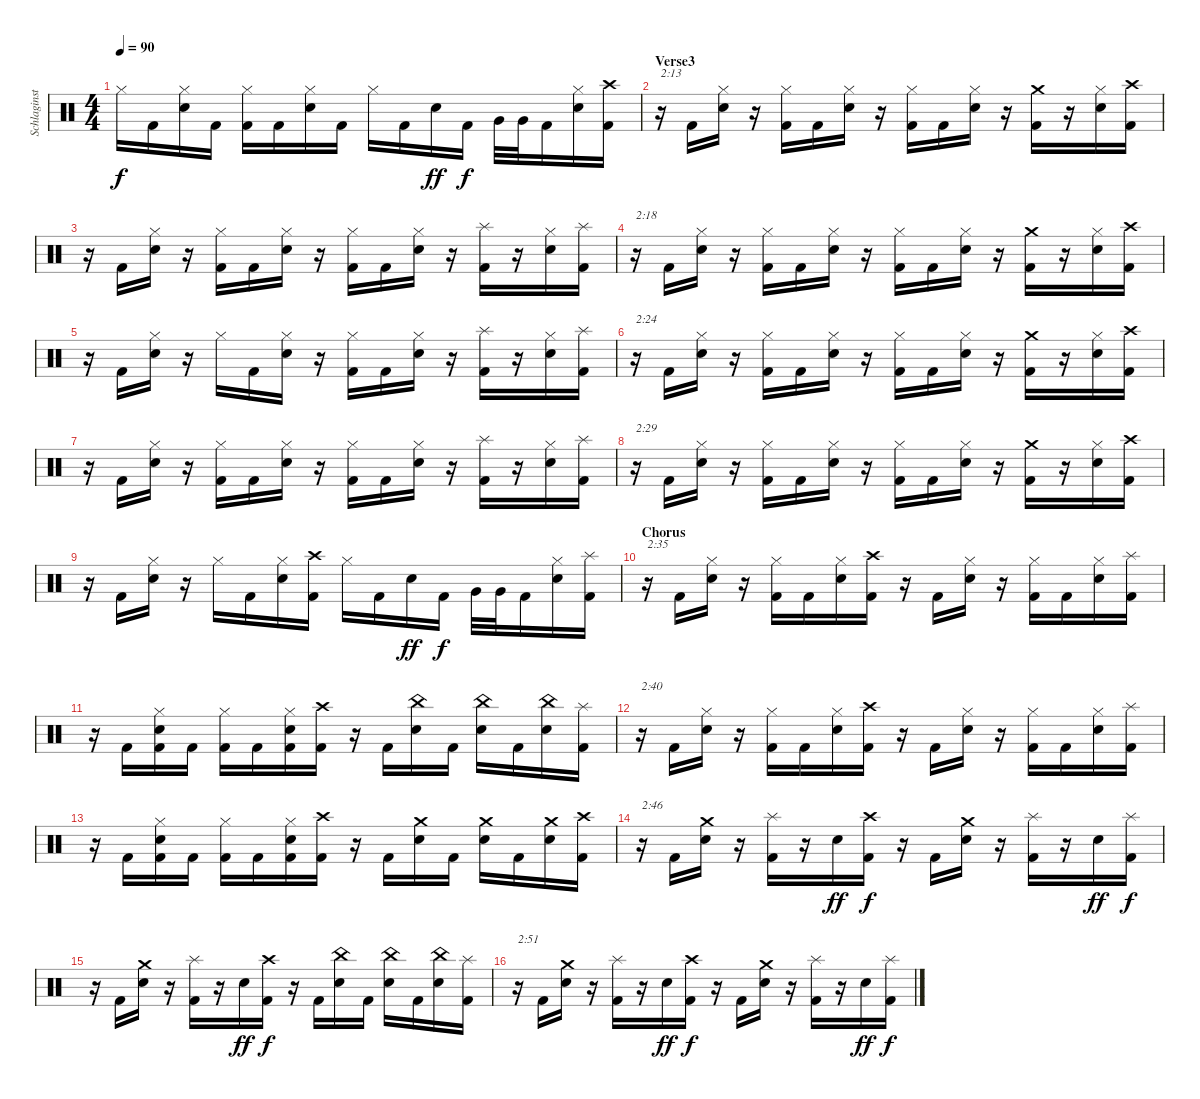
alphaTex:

\track ("Schlaginstrumente - Auswahl" "Schlaginst") {instrument percussion}
\staff {score}
\articulation defaults
\ts (4 4)
\tempo 90
\clef neutral
\ks c "Hi-Hat (closed)".16{dy f} "Kick (hit) 2".16
("Hi-Hat (closed)" "Electric Snare (hit)").16 "Kick (hit) 2".16 ("Hi-Hat (closed)" "Kick (hit) 2").16 "Kick (hit) 2".16 ("Hi-Hat (closed)" "Electric Snare (hit)").16 "Kick (hit) 2".16 "Hi-Hat (closed)".16 "Kick (hit) 2".16 "Electric Snare (hit)".16{dy ff} "Kick (hit) 2".16{dy f} "Very Low Tom (hit)".32 "Very Low Tom (hit)".32 "Kick (hit) 2".16 ("Hi-Hat (closed)" "Electric Snare (hit)").16 ("Crash high (hit)" "Kick (hit) 2").16 |
\section ("" "Verse3")
r.16{txt "2:13"} "Kick (hit) 2".16 ("Hi-Hat (closed)" "Electric Snare (hit)").16 r.16 ("Hi-Hat (closed)" "Kick (hit) 2").16 "Kick (hit) 2".16 ("Hi-Hat (closed)" "Electric Snare (hit)").16 r.16 ("Hi-Hat (closed)" "Kick (hit) 2").16 "Kick (hit) 2".16 ("Hi-Hat (closed)" "Electric Snare (hit)").16 r.16 ("Crash medium (hit)" "Kick (hit) 2").16 r.16 ("Hi-Hat (closed)" "Electric Snare (hit)").16 ("Crash high (hit)" "Kick (hit) 2").16 |
r.16 "Kick (hit) 2".16 ("Hi-Hat (closed)" "Electric Snare (hit)").16 r.16 ("Hi-Hat (closed)" "Kick (hit) 2").16 "Kick (hit) 2".16 ("Hi-Hat (closed)" "Electric Snare (hit)").16 r.16 ("Hi-Hat (closed)" "Kick (hit) 2").16 "Kick (hit) 2".16 ("Hi-Hat (closed)" "Electric Snare (hit)").16 r.16 ("Splash (hit)" "Kick (hit) 2").16 r.16 ("Hi-Hat (closed)" "Electric Snare (hit)").16 ("Splash (hit)" "Kick (hit) 2").16 |
r.16{txt "2:18"} "Kick (hit) 2".16 ("Hi-Hat (closed)" "Electric Snare (hit)").16 r.16 ("Hi-Hat (closed)" "Kick (hit) 2").16 "Kick (hit) 2".16 ("Hi-Hat (closed)" "Electric Snare (hit)").16 r.16 ("Hi-Hat (closed)" "Kick (hit) 2").16 "Kick (hit) 2".16 ("Hi-Hat (closed)" "Electric Snare (hit)").16 r.16 ("Crash medium (hit)" "Kick (hit) 2").16 r.16 ("Hi-Hat (closed)" "Electric Snare (hit)").16 ("Crash high (hit)" "Kick (hit) 2").16 |
r.16 "Kick (hit) 2".16 ("Hi-Hat (closed)" "Electric Snare (hit)").16 r.16 "Hi-Hat (closed)".16 "Kick (hit) 2".16 ("Hi-Hat (closed)" "Electric Snare (hit)").16 r.16 ("Hi-Hat (closed)" "Kick (hit) 2").16 "Kick (hit) 2".16 ("Hi-Hat (closed)" "Electric Snare (hit)").16 r.16 ("Splash (hit)" "Kick (hit) 2").16 r.16 ("Hi-Hat (closed)" "Electric Snare (hit)").16 ("Splash (hit)" "Kick (hit) 2").16 |
r.16{txt "2:24"} "Kick (hit) 2".16 ("Hi-Hat (closed)" "Electric Snare (hit)").16 r.16 ("Hi-Hat (closed)" "Kick (hit) 2").16 "Kick (hit) 2".16 ("Hi-Hat (closed)" "Electric Snare (hit)").16 r.16 ("Hi-Hat (closed)" "Kick (hit) 2").16 "Kick (hit) 2".16 ("Hi-Hat (closed)" "Electric Snare (hit)").16 r.16 ("Crash medium (hit)" "Kick (hit) 2").16 r.16 ("Hi-Hat (closed)" "Electric Snare (hit)").16 ("Crash high (hit)" "Kick (hit) 2").16 |
r.16 "Kick (hit) 2".16 ("Hi-Hat (closed)" "Electric Snare (hit)").16 r.16 ("Hi-Hat (closed)" "Kick (hit) 2").16 "Kick (hit) 2".16 ("Hi-Hat (closed)" "Electric Snare (hit)").16 r.16 ("Hi-Hat (closed)" "Kick (hit) 2").16 "Kick (hit) 2".16 ("Hi-Hat (closed)" "Electric Snare (hit)").16 r.16 ("Splash (hit)" "Kick (hit) 2").16 r.16 ("Hi-Hat (closed)" "Electric Snare (hit)").16 ("Splash (hit)" "Kick (hit) 2").16 |
r.16{txt "2:29"} "Kick (hit) 2".16 ("Hi-Hat (closed)" "Electric Snare (hit)").16 r.16 ("Hi-Hat (closed)" "Kick (hit) 2").16 "Kick (hit) 2".16 ("Hi-Hat (closed)" "Electric Snare (hit)").16 r.16 ("Hi-Hat (closed)" "Kick (hit) 2").16 "Kick (hit) 2".16 ("Hi-Hat (closed)" "Electric Snare (hit)").16 r.16 ("Crash medium (hit)" "Kick (hit) 2").16 r.16 ("Hi-Hat (closed)" "Electric Snare (hit)").16 ("Crash high (hit)" "Kick (hit) 2").16 |
r.16 "Kick (hit) 2".16 ("Hi-Hat (closed)" "Electric Snare (hit)").16 r.16 "Hi-Hat (closed)".16 "Kick (hit) 2".16 ("Hi-Hat (closed)" "Electric Snare (hit)").16 ("Crash high (hit)" "Kick (hit) 2").16 "Hi-Hat (closed)".16 "Kick (hit) 2".16 "Electric Snare (hit)".16{dy ff} "Kick (hit) 2".16{dy f} "Very Low Tom (hit)".32 "Very Low Tom (hit)".32 "Kick (hit) 2".16 ("Hi-Hat (closed)" "Electric Snare (hit)").16 ("Splash (hit)" "Kick (hit) 2").16 |
\section ("" "Chorus")
r.16{txt "2:35"} "Kick (hit) 2".16 ("Hi-Hat (closed)" "Electric Snare (hit)").16 r.16 ("Hi-Hat (closed)" "Kick (hit) 2").16 "Kick (hit) 2".16 ("Hi-Hat (closed)" "Electric Snare (hit)").16 ("Crash high (hit)" "Kick (hit) 2").16 r.16 "Kick (hit) 2".16 ("Hi-Hat (closed)" "Electric Snare (hit)").16 r.16 ("Hi-Hat (closed)" "Kick (hit) 2").16 "Kick (hit) 2".16 ("Hi-Hat (closed)" "Electric Snare (hit)").16 ("Splash (hit)" "Kick (hit) 2").16 |
r.16 "Kick (hit) 2".16 ("Hi-Hat (closed)" "Electric Snare (hit)" "Kick (hit) 2").16 "Kick (hit) 2".16 ("Hi-Hat (closed)" "Kick (hit) 2").16 "Kick (hit) 2".16 ("Hi-Hat (closed)" "Electric Snare (hit)" "Kick (hit) 2").16 ("Crash high (hit)" "Kick (hit) 2").16 r.16 "Kick (hit) 2".16 ("China (hit)" "Electric Snare (hit)").16 "Kick (hit) 2".16 ("China (hit)" "Electric Snare (hit)").16 "Kick (hit) 2".16 ("China (hit)" "Electric Snare (hit)").16 ("Splash (hit)" "Kick (hit) 2").16 |
r.16{txt "2:40"} "Kick (hit) 2".16 ("Hi-Hat (closed)" "Electric Snare (hit)").16 r.16 ("Hi-Hat (closed)" "Kick (hit) 2").16 "Kick (hit) 2".16 ("Hi-Hat (closed)" "Electric Snare (hit)").16 ("Crash high (hit)" "Kick (hit) 2").16 r.16 "Kick (hit) 2".16 ("Hi-Hat (closed)" "Electric Snare (hit)").16 r.16 ("Hi-Hat (closed)" "Kick (hit) 2").16 "Kick (hit) 2".16 ("Hi-Hat (closed)" "Electric Snare (hit)").16 ("Splash (hit)" "Kick (hit) 2").16 |
r.16 "Kick (hit) 2".16 ("Hi-Hat (closed)" "Electric Snare (hit)" "Kick (hit) 2").16 "Kick (hit) 2".16 ("Hi-Hat (closed)" "Kick (hit) 2").16 "Kick (hit) 2".16 ("Hi-Hat (closed)" "Electric Snare (hit)" "Kick (hit) 2").16 ("Crash high (hit)" "Kick (hit) 2").16 r.16 "Kick (hit) 2".16 ("Crash medium (hit)" "Electric Snare (hit)").16 "Kick (hit) 2".16 ("Crash medium (hit)" "Electric Snare (hit)").16 "Kick (hit) 2".16 ("Crash medium (hit)" "Electric Snare (hit)").16 ("Crash high (hit)" "Kick (hit) 2").16 |
r.16{txt "2:46"} "Kick (hit) 2".16 ("Crash medium (hit)" "Electric Snare (hit)").16 r.16 ("Splash (hit)" "Kick (hit) 2").16 r.16 "Electric Snare (hit)".16{dy ff} ("Crash high (hit)" "Kick (hit) 2").16{dy f} r.16 "Kick (hit) 2".16 ("Crash medium (hit)" "Electric Snare (hit)").16 r.16 ("Splash (hit)" "Kick (hit) 2").16 r.16 "Electric Snare (hit)".16{dy ff} ("Splash (hit)" "Kick (hit) 2").16{dy f} |
r.16 "Kick (hit) 2".16 ("Crash medium (hit)" "Electric Snare (hit)").16 r.16 ("Splash (hit)" "Kick (hit) 2").16 r.16 "Electric Snare (hit)".16{dy ff} ("Crash high (hit)" "Kick (hit) 2").16{dy f} r.16 "Kick (hit) 2".16 ("China (hit)" "Electric Snare (hit)").16 "Kick (hit) 2".16 ("China (hit)" "Electric Snare (hit)").16 "Kick (hit) 2".16 ("China (hit)" "Electric Snare (hit)").16 ("Splash (hit)" "Kick (hit) 2").16 |
r.16{txt "2:51"} "Kick (hit) 2".16 ("Crash medium (hit)" "Electric Snare (hit)").16 r.16 ("Splash (hit)" "Kick (hit) 2").16 r.16 "Electric Snare (hit)".16{dy ff} ("Crash high (hit)" "Kick (hit) 2").16{dy f} r.16 "Kick (hit) 2".16 ("Crash medium (hit)" "Electric Snare (hit)").16 r.16 ("Splash (hit)" "Kick (hit) 2").16 r.16 "Electric Snare (hit)".16{dy ff} ("Splash (hit)" "Kick (hit) 2").16{dy f}
